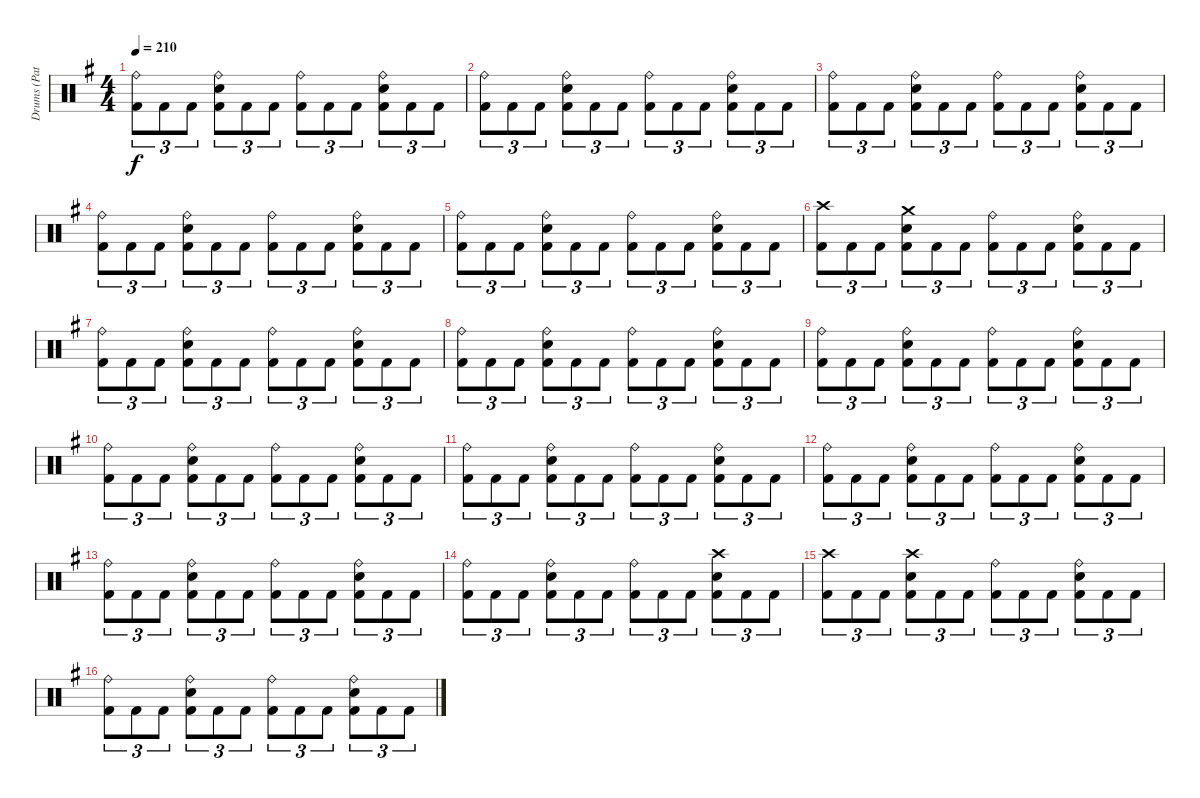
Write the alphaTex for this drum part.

\track ("Drums (Patrick Johansson)" "Drums (Pat") {instrument percussion}
\staff {score}
\articulation defaults
\ts (4 4)
\tempo 210
\clef neutral
\ks g
("Ride (bell)" "Kick (hit) 2").8{tu (3 2) dy f} "Kick (hit) 2".8{tu (3 2)} "Kick (hit) 2".8{tu (3 2)} ("Ride (bell)" "Electric Snare (hit)" "Kick (hit) 2").8{tu (3 2)} "Kick (hit) 2".8{tu (3 2)} "Kick (hit) 2".8{tu (3 2)} ("Ride (bell)" "Kick (hit) 2").8{tu (3 2)} "Kick (hit) 2".8{tu (3 2)} "Kick (hit) 2".8{tu (3 2)} ("Ride (bell)" "Electric Snare (hit)" "Kick (hit) 2").8{tu (3 2)} "Kick (hit) 2".8{tu (3 2)} "Kick (hit) 2".8{tu (3 2)} |
("Ride (bell)" "Kick (hit) 2").8{tu (3 2)} "Kick (hit) 2".8{tu (3 2)} "Kick (hit) 2".8{tu (3 2)} ("Ride (bell)" "Electric Snare (hit)" "Kick (hit) 2").8{tu (3 2)} "Kick (hit) 2".8{tu (3 2)} "Kick (hit) 2".8{tu (3 2)} ("Ride (bell)" "Kick (hit) 2").8{tu (3 2)} "Kick (hit) 2".8{tu (3 2)} "Kick (hit) 2".8{tu (3 2)} ("Ride (bell)" "Electric Snare (hit)" "Kick (hit) 2").8{tu (3 2)} "Kick (hit) 2".8{tu (3 2)} "Kick (hit) 2".8{tu (3 2)} |
("Ride (bell)" "Kick (hit) 2").8{tu (3 2)} "Kick (hit) 2".8{tu (3 2)} "Kick (hit) 2".8{tu (3 2)} ("Ride (bell)" "Electric Snare (hit)" "Kick (hit) 2").8{tu (3 2)} "Kick (hit) 2".8{tu (3 2)} "Kick (hit) 2".8{tu (3 2)} ("Ride (bell)" "Kick (hit) 2").8{tu (3 2)} "Kick (hit) 2".8{tu (3 2)} "Kick (hit) 2".8{tu (3 2)} ("Ride (bell)" "Electric Snare (hit)" "Kick (hit) 2").8{tu (3 2)} "Kick (hit) 2".8{tu (3 2)} "Kick (hit) 2".8{tu (3 2)} |
("Ride (bell)" "Kick (hit) 2").8{tu (3 2)} "Kick (hit) 2".8{tu (3 2)} "Kick (hit) 2".8{tu (3 2)} ("Ride (bell)" "Electric Snare (hit)" "Kick (hit) 2").8{tu (3 2)} "Kick (hit) 2".8{tu (3 2)} "Kick (hit) 2".8{tu (3 2)} ("Ride (bell)" "Kick (hit) 2").8{tu (3 2)} "Kick (hit) 2".8{tu (3 2)} "Kick (hit) 2".8{tu (3 2)} ("Ride (bell)" "Electric Snare (hit)" "Kick (hit) 2").8{tu (3 2)} "Kick (hit) 2".8{tu (3 2)} "Kick (hit) 2".8{tu (3 2)} |
("Ride (bell)" "Kick (hit) 2").8{tu (3 2)} "Kick (hit) 2".8{tu (3 2)} "Kick (hit) 2".8{tu (3 2)} ("Ride (bell)" "Electric Snare (hit)" "Kick (hit) 2").8{tu (3 2)} "Kick (hit) 2".8{tu (3 2)} "Kick (hit) 2".8{tu (3 2)} ("Ride (bell)" "Kick (hit) 2").8{tu (3 2)} "Kick (hit) 2".8{tu (3 2)} "Kick (hit) 2".8{tu (3 2)} ("Ride (bell)" "Electric Snare (hit)" "Kick (hit) 2").8{tu (3 2)} "Kick (hit) 2".8{tu (3 2)} "Kick (hit) 2".8{tu (3 2)} |
("Crash high (hit)" "Kick (hit) 2").8{tu (3 2)} "Kick (hit) 2".8{tu (3 2)} "Kick (hit) 2".8{tu (3 2)} ("Crash medium (hit)" "Electric Snare (hit)" "Kick (hit) 2").8{tu (3 2)} "Kick (hit) 2".8{tu (3 2)} "Kick (hit) 2".8{tu (3 2)} ("Ride (bell)" "Kick (hit) 2").8{tu (3 2)} "Kick (hit) 2".8{tu (3 2)} "Kick (hit) 2".8{tu (3 2)} ("Ride (bell)" "Electric Snare (hit)" "Kick (hit) 2").8{tu (3 2)} "Kick (hit) 2".8{tu (3 2)} "Kick (hit) 2".8{tu (3 2)} |
("Ride (bell)" "Kick (hit) 2").8{tu (3 2)} "Kick (hit) 2".8{tu (3 2)} "Kick (hit) 2".8{tu (3 2)} ("Ride (bell)" "Electric Snare (hit)" "Kick (hit) 2").8{tu (3 2)} "Kick (hit) 2".8{tu (3 2)} "Kick (hit) 2".8{tu (3 2)} ("Ride (bell)" "Kick (hit) 2").8{tu (3 2)} "Kick (hit) 2".8{tu (3 2)} "Kick (hit) 2".8{tu (3 2)} ("Ride (bell)" "Electric Snare (hit)" "Kick (hit) 2").8{tu (3 2)} "Kick (hit) 2".8{tu (3 2)} "Kick (hit) 2".8{tu (3 2)} |
("Ride (bell)" "Kick (hit) 2").8{tu (3 2)} "Kick (hit) 2".8{tu (3 2)} "Kick (hit) 2".8{tu (3 2)} ("Ride (bell)" "Electric Snare (hit)" "Kick (hit) 2").8{tu (3 2)} "Kick (hit) 2".8{tu (3 2)} "Kick (hit) 2".8{tu (3 2)} ("Ride (bell)" "Kick (hit) 2").8{tu (3 2)} "Kick (hit) 2".8{tu (3 2)} "Kick (hit) 2".8{tu (3 2)} ("Ride (bell)" "Electric Snare (hit)" "Kick (hit) 2").8{tu (3 2)} "Kick (hit) 2".8{tu (3 2)} "Kick (hit) 2".8{tu (3 2)} |
("Ride (bell)" "Kick (hit) 2").8{tu (3 2)} "Kick (hit) 2".8{tu (3 2)} "Kick (hit) 2".8{tu (3 2)} ("Ride (bell)" "Electric Snare (hit)" "Kick (hit) 2").8{tu (3 2)} "Kick (hit) 2".8{tu (3 2)} "Kick (hit) 2".8{tu (3 2)} ("Ride (bell)" "Kick (hit) 2").8{tu (3 2)} "Kick (hit) 2".8{tu (3 2)} "Kick (hit) 2".8{tu (3 2)} ("Ride (bell)" "Electric Snare (hit)" "Kick (hit) 2").8{tu (3 2)} "Kick (hit) 2".8{tu (3 2)} "Kick (hit) 2".8{tu (3 2)} |
("Ride (bell)" "Kick (hit) 2").8{tu (3 2)} "Kick (hit) 2".8{tu (3 2)} "Kick (hit) 2".8{tu (3 2)} ("Ride (bell)" "Electric Snare (hit)" "Kick (hit) 2").8{tu (3 2)} "Kick (hit) 2".8{tu (3 2)} "Kick (hit) 2".8{tu (3 2)} ("Ride (bell)" "Kick (hit) 2").8{tu (3 2)} "Kick (hit) 2".8{tu (3 2)} "Kick (hit) 2".8{tu (3 2)} ("Ride (bell)" "Electric Snare (hit)" "Kick (hit) 2").8{tu (3 2)} "Kick (hit) 2".8{tu (3 2)} "Kick (hit) 2".8{tu (3 2)} |
("Ride (bell)" "Kick (hit) 2").8{tu (3 2)} "Kick (hit) 2".8{tu (3 2)} "Kick (hit) 2".8{tu (3 2)} ("Ride (bell)" "Electric Snare (hit)" "Kick (hit) 2").8{tu (3 2)} "Kick (hit) 2".8{tu (3 2)} "Kick (hit) 2".8{tu (3 2)} ("Ride (bell)" "Kick (hit) 2").8{tu (3 2)} "Kick (hit) 2".8{tu (3 2)} "Kick (hit) 2".8{tu (3 2)} ("Ride (bell)" "Electric Snare (hit)" "Kick (hit) 2").8{tu (3 2)} "Kick (hit) 2".8{tu (3 2)} "Kick (hit) 2".8{tu (3 2)} |
("Ride (bell)" "Kick (hit) 2").8{tu (3 2)} "Kick (hit) 2".8{tu (3 2)} "Kick (hit) 2".8{tu (3 2)} ("Ride (bell)" "Electric Snare (hit)" "Kick (hit) 2").8{tu (3 2)} "Kick (hit) 2".8{tu (3 2)} "Kick (hit) 2".8{tu (3 2)} ("Ride (bell)" "Kick (hit) 2").8{tu (3 2)} "Kick (hit) 2".8{tu (3 2)} "Kick (hit) 2".8{tu (3 2)} ("Ride (bell)" "Electric Snare (hit)" "Kick (hit) 2").8{tu (3 2)} "Kick (hit) 2".8{tu (3 2)} "Kick (hit) 2".8{tu (3 2)} |
("Ride (bell)" "Kick (hit) 2").8{tu (3 2)} "Kick (hit) 2".8{tu (3 2)} "Kick (hit) 2".8{tu (3 2)} ("Ride (bell)" "Electric Snare (hit)" "Kick (hit) 2").8{tu (3 2)} "Kick (hit) 2".8{tu (3 2)} "Kick (hit) 2".8{tu (3 2)} ("Ride (bell)" "Kick (hit) 2").8{tu (3 2)} "Kick (hit) 2".8{tu (3 2)} "Kick (hit) 2".8{tu (3 2)} ("Ride (bell)" "Electric Snare (hit)" "Kick (hit) 2").8{tu (3 2)} "Kick (hit) 2".8{tu (3 2)} "Kick (hit) 2".8{tu (3 2)} |
("Ride (bell)" "Kick (hit) 2").8{tu (3 2)} "Kick (hit) 2".8{tu (3 2)} "Kick (hit) 2".8{tu (3 2)} ("Ride (bell)" "Electric Snare (hit)" "Kick (hit) 2").8{tu (3 2)} "Kick (hit) 2".8{tu (3 2)} "Kick (hit) 2".8{tu (3 2)} ("Ride (bell)" "Kick (hit) 2").8{tu (3 2)} "Kick (hit) 2".8{tu (3 2)} "Kick (hit) 2".8{tu (3 2)} ("Crash high (hit)" "Electric Snare (hit)" "Kick (hit) 2").8{tu (3 2)} "Kick (hit) 2".8{tu (3 2)} "Kick (hit) 2".8{tu (3 2)} |
("Crash high (hit)" "Kick (hit) 2").8{tu (3 2)} "Kick (hit) 2".8{tu (3 2)} "Kick (hit) 2".8{tu (3 2)} ("Crash high (hit)" "Electric Snare (hit)" "Kick (hit) 2").8{tu (3 2)} "Kick (hit) 2".8{tu (3 2)} "Kick (hit) 2".8{tu (3 2)} ("Ride (bell)" "Kick (hit) 2").8{tu (3 2)} "Kick (hit) 2".8{tu (3 2)} "Kick (hit) 2".8{tu (3 2)} ("Ride (bell)" "Electric Snare (hit)" "Kick (hit) 2").8{tu (3 2)} "Kick (hit) 2".8{tu (3 2)} "Kick (hit) 2".8{tu (3 2)} |
("Ride (bell)" "Kick (hit) 2").8{tu (3 2)} "Kick (hit) 2".8{tu (3 2)} "Kick (hit) 2".8{tu (3 2)} ("Ride (bell)" "Electric Snare (hit)" "Kick (hit) 2").8{tu (3 2)} "Kick (hit) 2".8{tu (3 2)} "Kick (hit) 2".8{tu (3 2)} ("Ride (bell)" "Kick (hit) 2").8{tu (3 2)} "Kick (hit) 2".8{tu (3 2)} "Kick (hit) 2".8{tu (3 2)} ("Ride (bell)" "Electric Snare (hit)" "Kick (hit) 2").8{tu (3 2)} "Kick (hit) 2".8{tu (3 2)} "Kick (hit) 2".8{tu (3 2)}
